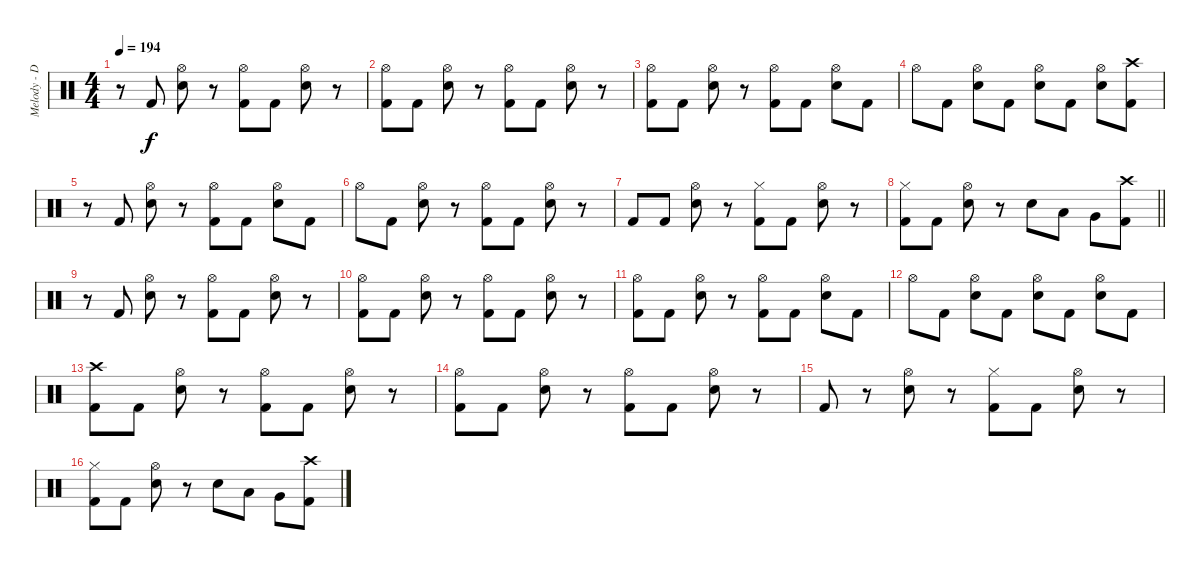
\track ("Melody - Drums" "Melody - D") {instrument percussion}
\staff {score}
\articulation defaults
\ts (4 4)
\tempo 194
\clef neutral
\ks c
r.8{dy f} "Kick (hit) 2".8 ("Hi-Hat (open)" "Electric Snare (hit)").8 r.8 ("Hi-Hat (open)" "Kick (hit) 2").8 "Kick (hit) 2".8 ("Hi-Hat (open)" "Electric Snare (hit)").8 r.8 |
("Hi-Hat (open)" "Kick (hit) 2").8 "Kick (hit) 2".8 ("Hi-Hat (open)" "Electric Snare (hit)").8 r.8 ("Hi-Hat (open)" "Kick (hit) 2").8 "Kick (hit) 2".8 ("Hi-Hat (open)" "Electric Snare (hit)").8 r.8 |
("Hi-Hat (open)" "Kick (hit) 2").8 "Kick (hit) 2".8 ("Hi-Hat (open)" "Electric Snare (hit)").8 r.8 ("Hi-Hat (open)" "Kick (hit) 2").8 "Kick (hit) 2".8 ("Hi-Hat (open)" "Electric Snare (hit)").8 "Kick (hit) 2".8 |
"Hi-Hat (open)".8 "Kick (hit) 2".8 ("Hi-Hat (open)" "Electric Snare (hit)").8 "Kick (hit) 2".8 ("Hi-Hat (open)" "Electric Snare (hit)").8 "Kick (hit) 2".8 ("Hi-Hat (open)" "Electric Snare (hit)").8 ("Crash high (hit)" "Kick (hit) 2").8 |
r.8 "Kick (hit) 2".8 ("Hi-Hat (open)" "Electric Snare (hit)").8 r.8 ("Hi-Hat (open)" "Kick (hit) 2").8 "Kick (hit) 2".8 ("Hi-Hat (open)" "Electric Snare (hit)").8 "Kick (hit) 2".8 |
"Hi-Hat (open)".8 "Kick (hit) 2".8 ("Hi-Hat (open)" "Electric Snare (hit)").8 r.8 ("Hi-Hat (open)" "Kick (hit) 2").8 "Kick (hit) 2".8 ("Hi-Hat (open)" "Electric Snare (hit)").8 r.8 |
"Kick (hit) 2".8 "Kick (hit) 2".8 ("Hi-Hat (open)" "Electric Snare (hit)").8 r.8 ("Hi-Hat (closed)" "Kick (hit) 2").8 "Kick (hit) 2".8 ("Hi-Hat (open)" "Electric Snare (hit)").8 r.8 |
\barLineRight lightlight
("Hi-Hat (closed)" "Kick (hit) 2").8 "Kick (hit) 2".8 ("Hi-Hat (open)" "Electric Snare (hit)").8 r.8 "Electric Snare (hit)".8 "Low Tom (hit)".8 "Very Low Tom (hit)".8 ("Crash high (hit)" "Kick (hit) 2").8 |
r.8 "Kick (hit) 2".8 ("Hi-Hat (open)" "Electric Snare (hit)").8 r.8 ("Hi-Hat (open)" "Kick (hit) 2").8 "Kick (hit) 2".8 ("Hi-Hat (open)" "Electric Snare (hit)").8 r.8 |
("Hi-Hat (open)" "Kick (hit) 2").8 "Kick (hit) 2".8 ("Hi-Hat (open)" "Electric Snare (hit)").8 r.8 ("Hi-Hat (open)" "Kick (hit) 2").8 "Kick (hit) 2".8 ("Hi-Hat (open)" "Electric Snare (hit)").8 r.8 |
("Hi-Hat (open)" "Kick (hit) 2").8 "Kick (hit) 2".8 ("Hi-Hat (open)" "Electric Snare (hit)").8 r.8 ("Hi-Hat (open)" "Kick (hit) 2").8 "Kick (hit) 2".8 ("Hi-Hat (open)" "Electric Snare (hit)").8 "Kick (hit) 2".8 |
"Hi-Hat (open)".8 "Kick (hit) 2".8 ("Hi-Hat (open)" "Electric Snare (hit)").8 "Kick (hit) 2".8 ("Hi-Hat (open)" "Electric Snare (hit)").8 "Kick (hit) 2".8 ("Hi-Hat (open)" "Electric Snare (hit)").8 "Kick (hit) 2".8 |
("Crash high (hit)" "Kick (hit) 2").8 "Kick (hit) 2".8 ("Hi-Hat (open)" "Electric Snare (hit)").8 r.8 ("Hi-Hat (open)" "Kick (hit) 2").8 "Kick (hit) 2".8 ("Hi-Hat (open)" "Electric Snare (hit)").8 r.8 |
("Hi-Hat (open)" "Kick (hit) 2").8 "Kick (hit) 2".8 ("Hi-Hat (open)" "Electric Snare (hit)").8 r.8 ("Hi-Hat (open)" "Kick (hit) 2").8 "Kick (hit) 2".8 ("Hi-Hat (open)" "Electric Snare (hit)").8 r.8 |
"Kick (hit) 2".8 r.8 ("Hi-Hat (open)" "Electric Snare (hit)").8 r.8 ("Hi-Hat (closed)" "Kick (hit) 2").8 "Kick (hit) 2".8 ("Hi-Hat (open)" "Electric Snare (hit)").8 r.8 |
("Hi-Hat (closed)" "Kick (hit) 2").8 "Kick (hit) 2".8 ("Hi-Hat (open)" "Electric Snare (hit)").8 r.8 "Electric Snare (hit)".8 "Low Tom (hit)".8 "Very Low Tom (hit)".8 ("Crash high (hit)" "Kick (hit) 2").8
